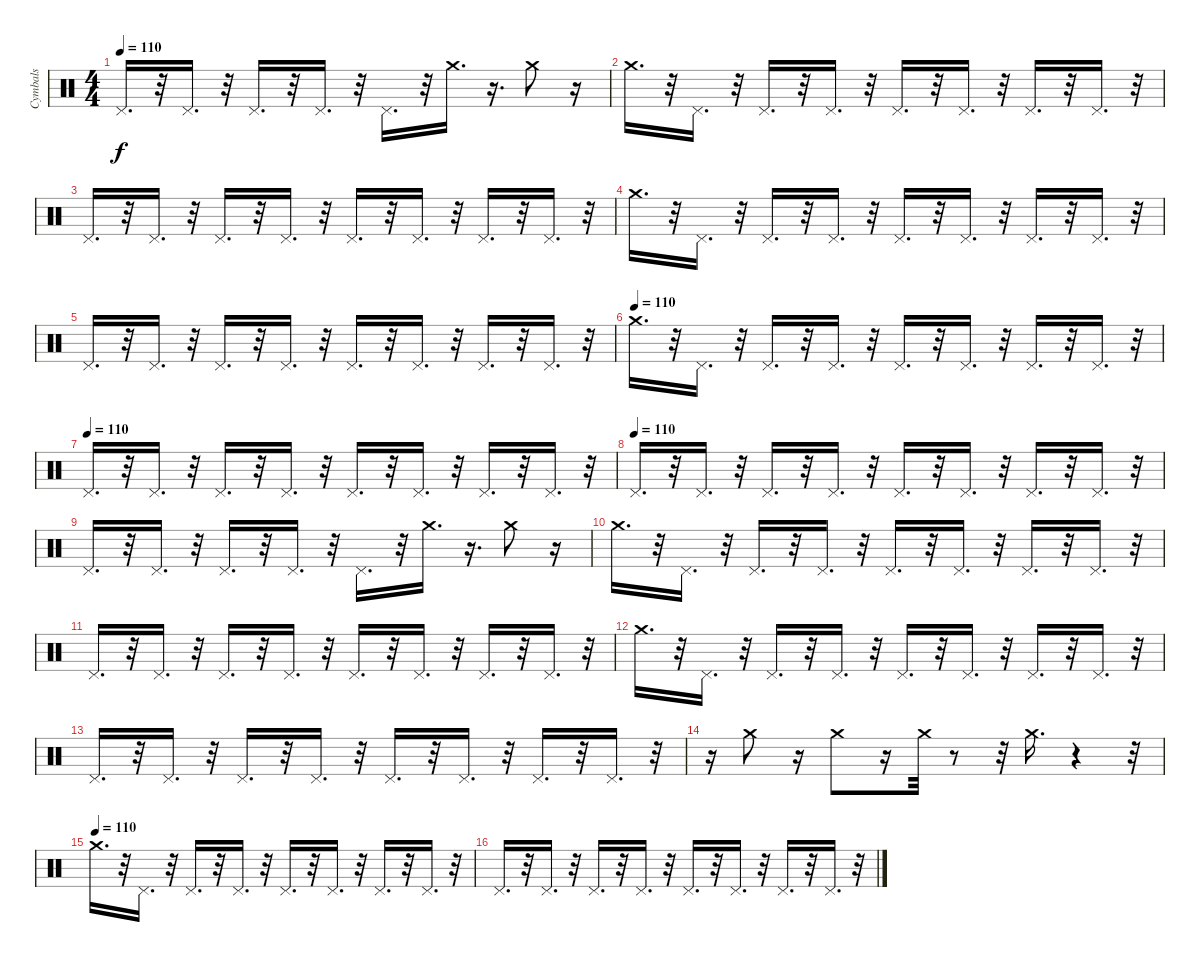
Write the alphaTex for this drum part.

\track ("Cymbals" "Cymbals") {instrument percussion}
\staff {score}
\articulation defaults
\ts (4 4)
\tempo 110
\clef neutral
\ks c "Pedal Hi-Hat (hit)".16{d dy f}
r.32 "Pedal Hi-Hat (hit)".16{d} r.32 "Pedal Hi-Hat (hit)".16{d} r.32 "Pedal Hi-Hat (hit)".16{d} r.32 "Pedal Hi-Hat (hit)".16{d} r.32 "Crash medium (hit)".16{d} r.16{d} "Crash medium (hit)".8 r.16 |
"Crash medium (hit)".16{d} r.32 "Pedal Hi-Hat (hit)".16{d} r.32 "Pedal Hi-Hat (hit)".16{d} r.32 "Pedal Hi-Hat (hit)".16{d} r.32 "Pedal Hi-Hat (hit)".16{d} r.32 "Pedal Hi-Hat (hit)".16{d} r.32 "Pedal Hi-Hat (hit)".16{d} r.32 "Pedal Hi-Hat (hit)".16{d} r.32 |
"Pedal Hi-Hat (hit)".16{d} r.32 "Pedal Hi-Hat (hit)".16{d} r.32 "Pedal Hi-Hat (hit)".16{d} r.32 "Pedal Hi-Hat (hit)".16{d} r.32 "Pedal Hi-Hat (hit)".16{d} r.32 "Pedal Hi-Hat (hit)".16{d} r.32 "Pedal Hi-Hat (hit)".16{d} r.32 "Pedal Hi-Hat (hit)".16{d} r.32 |
"Crash medium (hit)".16{d} r.32 "Pedal Hi-Hat (hit)".16{d} r.32 "Pedal Hi-Hat (hit)".16{d} r.32 "Pedal Hi-Hat (hit)".16{d} r.32 "Pedal Hi-Hat (hit)".16{d} r.32 "Pedal Hi-Hat (hit)".16{d} r.32 "Pedal Hi-Hat (hit)".16{d} r.32 "Pedal Hi-Hat (hit)".16{d} r.32 |
"Pedal Hi-Hat (hit)".16{d} r.32 "Pedal Hi-Hat (hit)".16{d} r.32 "Pedal Hi-Hat (hit)".16{d} r.32 "Pedal Hi-Hat (hit)".16{d} r.32 "Pedal Hi-Hat (hit)".16{d} r.32 "Pedal Hi-Hat (hit)".16{d} r.32 "Pedal Hi-Hat (hit)".16{d} r.32 "Pedal Hi-Hat (hit)".16{d} r.32 |
\tempo (110)
"Crash medium (hit)".16{d} r.32 "Pedal Hi-Hat (hit)".16{d} r.32 "Pedal Hi-Hat (hit)".16{d} r.32 "Pedal Hi-Hat (hit)".16{d} r.32 "Pedal Hi-Hat (hit)".16{d} r.32 "Pedal Hi-Hat (hit)".16{d} r.32 "Pedal Hi-Hat (hit)".16{d} r.32 "Pedal Hi-Hat (hit)".16{d} r.32 |
\tempo (110)
"Pedal Hi-Hat (hit)".16{d} r.32 "Pedal Hi-Hat (hit)".16{d} r.32 "Pedal Hi-Hat (hit)".16{d} r.32 "Pedal Hi-Hat (hit)".16{d} r.32 "Pedal Hi-Hat (hit)".16{d} r.32 "Pedal Hi-Hat (hit)".16{d} r.32 "Pedal Hi-Hat (hit)".16{d} r.32 "Pedal Hi-Hat (hit)".16{d} r.32 |
\tempo (110)
"Pedal Hi-Hat (hit)".16{d} r.32 "Pedal Hi-Hat (hit)".16{d} r.32 "Pedal Hi-Hat (hit)".16{d} r.32 "Pedal Hi-Hat (hit)".16{d} r.32 "Pedal Hi-Hat (hit)".16{d} r.32 "Pedal Hi-Hat (hit)".16{d} r.32 "Pedal Hi-Hat (hit)".16{d} r.32 "Pedal Hi-Hat (hit)".16{d} r.32 |
"Pedal Hi-Hat (hit)".16{d} r.32 "Pedal Hi-Hat (hit)".16{d} r.32 "Pedal Hi-Hat (hit)".16{d} r.32 "Pedal Hi-Hat (hit)".16{d} r.32 "Pedal Hi-Hat (hit)".16{d} r.32 "Crash medium (hit)".16{d} r.16{d} "Crash medium (hit)".8 r.16 |
"Crash medium (hit)".16{d} r.32 "Pedal Hi-Hat (hit)".16{d} r.32 "Pedal Hi-Hat (hit)".16{d} r.32 "Pedal Hi-Hat (hit)".16{d} r.32 "Pedal Hi-Hat (hit)".16{d} r.32 "Pedal Hi-Hat (hit)".16{d} r.32 "Pedal Hi-Hat (hit)".16{d} r.32 "Pedal Hi-Hat (hit)".16{d} r.32 |
"Pedal Hi-Hat (hit)".16{d} r.32 "Pedal Hi-Hat (hit)".16{d} r.32 "Pedal Hi-Hat (hit)".16{d} r.32 "Pedal Hi-Hat (hit)".16{d} r.32 "Pedal Hi-Hat (hit)".16{d} r.32 "Pedal Hi-Hat (hit)".16{d} r.32 "Pedal Hi-Hat (hit)".16{d} r.32 "Pedal Hi-Hat (hit)".16{d} r.32 |
"Crash medium (hit)".16{d} r.32 "Pedal Hi-Hat (hit)".16{d} r.32 "Pedal Hi-Hat (hit)".16{d} r.32 "Pedal Hi-Hat (hit)".16{d} r.32 "Pedal Hi-Hat (hit)".16{d} r.32 "Pedal Hi-Hat (hit)".16{d} r.32 "Pedal Hi-Hat (hit)".16{d} r.32 "Pedal Hi-Hat (hit)".16{d} r.32 |
"Pedal Hi-Hat (hit)".16{d} r.32 "Pedal Hi-Hat (hit)".16{d} r.32 "Pedal Hi-Hat (hit)".16{d} r.32 "Pedal Hi-Hat (hit)".16{d} r.32 "Pedal Hi-Hat (hit)".16{d} r.32 "Pedal Hi-Hat (hit)".16{d} r.32 "Pedal Hi-Hat (hit)".16{d} r.32 "Pedal Hi-Hat (hit)".16{d} r.32 |
r.16 "Crash medium (hit)".8 r.16 "Crash medium (hit)".8 r.16 "Crash medium (hit)".32 r.8 r.32 "Crash medium (hit)".16{d} r.4 r.32 |
\tempo (110)
"Crash medium (hit)".16{d} r.32 "Pedal Hi-Hat (hit)".16{d} r.32 "Pedal Hi-Hat (hit)".16{d} r.32 "Pedal Hi-Hat (hit)".16{d} r.32 "Pedal Hi-Hat (hit)".16{d} r.32 "Pedal Hi-Hat (hit)".16{d} r.32 "Pedal Hi-Hat (hit)".16{d} r.32 "Pedal Hi-Hat (hit)".16{d} r.32 |
"Pedal Hi-Hat (hit)".16{d} r.32 "Pedal Hi-Hat (hit)".16{d} r.32 "Pedal Hi-Hat (hit)".16{d} r.32 "Pedal Hi-Hat (hit)".16{d} r.32 "Pedal Hi-Hat (hit)".16{d} r.32 "Pedal Hi-Hat (hit)".16{d} r.32 "Pedal Hi-Hat (hit)".16{d} r.32 "Pedal Hi-Hat (hit)".16{d} r.32
